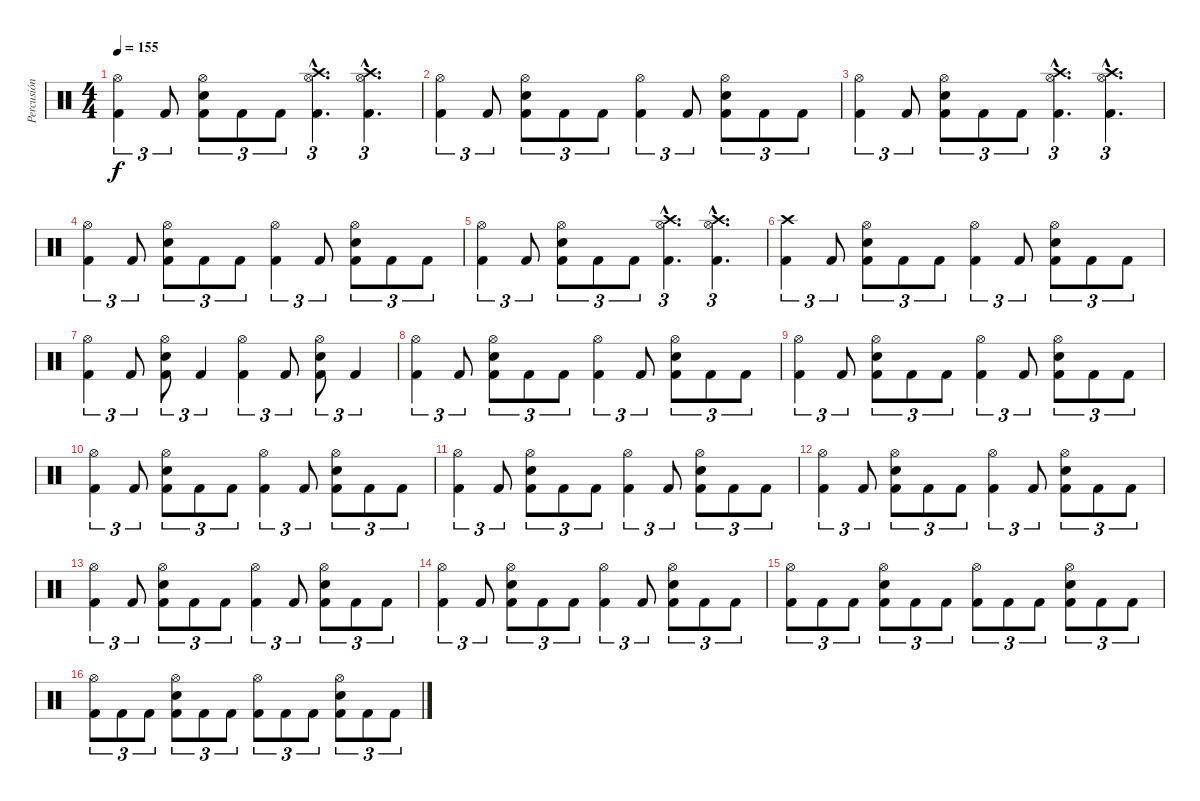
\track ("Percusión" "Percusión") {instrument percussion}
\staff {score}
\articulation defaults
\ts (4 4)
\tempo 155
\clef neutral
\ks c
("Hi-Hat (open)" "Kick (hit) 2").4{tu (3 2) dy f} "Kick (hit) 2".8{tu (3 2)} ("Hi-Hat (open)" "Electric Snare (hit)" "Kick (hit) 2").8{tu (3 2)} "Kick (hit) 2".8{tu (3 2)} "Kick (hit) 2".8{tu (3 2)} ("Hi-Hat (open)"{hac} "Crash high (hit)"{hac} "Kick (hit) 2"{hac}).4{d tu (3 2)} ("Hi-Hat (open)"{hac} "Crash high (hit)"{hac} "Kick (hit) 2"{hac}).4{d tu (3 2)} |
("Hi-Hat (open)" "Kick (hit) 2").4{tu (3 2)} "Kick (hit) 2".8{tu (3 2)} ("Hi-Hat (open)" "Electric Snare (hit)" "Kick (hit) 2").8{tu (3 2)} "Kick (hit) 2".8{tu (3 2)} "Kick (hit) 2".8{tu (3 2)} ("Hi-Hat (open)" "Kick (hit) 2").4{tu (3 2)} "Kick (hit) 2".8{tu (3 2)} ("Hi-Hat (open)" "Electric Snare (hit)" "Kick (hit) 2").8{tu (3 2)} "Kick (hit) 2".8{tu (3 2)} "Kick (hit) 2".8{tu (3 2)} |
("Hi-Hat (open)" "Kick (hit) 2").4{tu (3 2)} "Kick (hit) 2".8{tu (3 2)} ("Hi-Hat (open)" "Electric Snare (hit)" "Kick (hit) 2").8{tu (3 2)} "Kick (hit) 2".8{tu (3 2)} "Kick (hit) 2".8{tu (3 2)} ("Hi-Hat (open)"{hac} "Crash high (hit)"{hac} "Kick (hit) 2"{hac}).4{d tu (3 2)} ("Hi-Hat (open)"{hac} "Crash high (hit)"{hac} "Kick (hit) 2"{hac}).4{d tu (3 2)} |
("Hi-Hat (open)" "Kick (hit) 2").4{tu (3 2)} "Kick (hit) 2".8{tu (3 2)} ("Hi-Hat (open)" "Electric Snare (hit)" "Kick (hit) 2").8{tu (3 2)} "Kick (hit) 2".8{tu (3 2)} "Kick (hit) 2".8{tu (3 2)} ("Hi-Hat (open)" "Kick (hit) 2").4{tu (3 2)} "Kick (hit) 2".8{tu (3 2)} ("Hi-Hat (open)" "Electric Snare (hit)" "Kick (hit) 2").8{tu (3 2)} "Kick (hit) 2".8{tu (3 2)} "Kick (hit) 2".8{tu (3 2)} |
("Hi-Hat (open)" "Kick (hit) 2").4{tu (3 2)} "Kick (hit) 2".8{tu (3 2)} ("Hi-Hat (open)" "Electric Snare (hit)" "Kick (hit) 2").8{tu (3 2)} "Kick (hit) 2".8{tu (3 2)} "Kick (hit) 2".8{tu (3 2)} ("Hi-Hat (open)"{hac} "Crash high (hit)"{hac} "Kick (hit) 2"{hac}).4{d tu (3 2)} ("Hi-Hat (open)"{hac} "Crash high (hit)"{hac} "Kick (hit) 2"{hac}).4{d tu (3 2)} |
("Crash high (hit)" "Kick (hit) 2").4{tu (3 2)} "Kick (hit) 2".8{tu (3 2)} ("Hi-Hat (open)" "Electric Snare (hit)" "Kick (hit) 2").8{tu (3 2)} "Kick (hit) 2".8{tu (3 2)} "Kick (hit) 2".8{tu (3 2)} ("Hi-Hat (open)" "Kick (hit) 2").4{tu (3 2)} "Kick (hit) 2".8{tu (3 2)} ("Hi-Hat (open)" "Electric Snare (hit)" "Kick (hit) 2").8{tu (3 2)} "Kick (hit) 2".8{tu (3 2)} "Kick (hit) 2".8{tu (3 2)} |
("Hi-Hat (open)" "Kick (hit) 2").4{tu (3 2)} "Kick (hit) 2".8{tu (3 2)} ("Hi-Hat (open)" "Electric Snare (hit)" "Kick (hit) 2").8{tu (3 2)} "Kick (hit) 2".4{tu (3 2)} ("Hi-Hat (open)" "Kick (hit) 2").4{tu (3 2)} "Kick (hit) 2".8{tu (3 2)} ("Hi-Hat (open)" "Electric Snare (hit)" "Kick (hit) 2").8{tu (3 2)} "Kick (hit) 2".4{tu (3 2)} |
("Hi-Hat (open)" "Kick (hit) 2").4{tu (3 2)} "Kick (hit) 2".8{tu (3 2)} ("Hi-Hat (open)" "Electric Snare (hit)" "Kick (hit) 2").8{tu (3 2)} "Kick (hit) 2".8{tu (3 2)} "Kick (hit) 2".8{tu (3 2)} ("Hi-Hat (open)" "Kick (hit) 2").4{tu (3 2)} "Kick (hit) 2".8{tu (3 2)} ("Hi-Hat (open)" "Electric Snare (hit)" "Kick (hit) 2").8{tu (3 2)} "Kick (hit) 2".8{tu (3 2)} "Kick (hit) 2".8{tu (3 2)} |
("Hi-Hat (open)" "Kick (hit) 2").4{tu (3 2)} "Kick (hit) 2".8{tu (3 2)} ("Hi-Hat (open)" "Electric Snare (hit)" "Kick (hit) 2").8{tu (3 2)} "Kick (hit) 2".8{tu (3 2)} "Kick (hit) 2".8{tu (3 2)} ("Hi-Hat (open)" "Kick (hit) 2").4{tu (3 2)} "Kick (hit) 2".8{tu (3 2)} ("Hi-Hat (open)" "Electric Snare (hit)" "Kick (hit) 2").8{tu (3 2)} "Kick (hit) 2".8{tu (3 2)} "Kick (hit) 2".8{tu (3 2)} |
("Hi-Hat (open)" "Kick (hit) 2").4{tu (3 2)} "Kick (hit) 2".8{tu (3 2)} ("Hi-Hat (open)" "Electric Snare (hit)" "Kick (hit) 2").8{tu (3 2)} "Kick (hit) 2".8{tu (3 2)} "Kick (hit) 2".8{tu (3 2)} ("Hi-Hat (open)" "Kick (hit) 2").4{tu (3 2)} "Kick (hit) 2".8{tu (3 2)} ("Hi-Hat (open)" "Electric Snare (hit)" "Kick (hit) 2").8{tu (3 2)} "Kick (hit) 2".8{tu (3 2)} "Kick (hit) 2".8{tu (3 2)} |
("Hi-Hat (open)" "Kick (hit) 2").4{tu (3 2)} "Kick (hit) 2".8{tu (3 2)} ("Hi-Hat (open)" "Electric Snare (hit)" "Kick (hit) 2").8{tu (3 2)} "Kick (hit) 2".8{tu (3 2)} "Kick (hit) 2".8{tu (3 2)} ("Hi-Hat (open)" "Kick (hit) 2").4{tu (3 2)} "Kick (hit) 2".8{tu (3 2)} ("Hi-Hat (open)" "Electric Snare (hit)" "Kick (hit) 2").8{tu (3 2)} "Kick (hit) 2".8{tu (3 2)} "Kick (hit) 2".8{tu (3 2)} |
("Hi-Hat (open)" "Kick (hit) 2").4{tu (3 2)} "Kick (hit) 2".8{tu (3 2)} ("Hi-Hat (open)" "Electric Snare (hit)" "Kick (hit) 2").8{tu (3 2)} "Kick (hit) 2".8{tu (3 2)} "Kick (hit) 2".8{tu (3 2)} ("Hi-Hat (open)" "Kick (hit) 2").4{tu (3 2)} "Kick (hit) 2".8{tu (3 2)} ("Hi-Hat (open)" "Electric Snare (hit)" "Kick (hit) 2").8{tu (3 2)} "Kick (hit) 2".8{tu (3 2)} "Kick (hit) 2".8{tu (3 2)} |
("Hi-Hat (open)" "Kick (hit) 2").4{tu (3 2)} "Kick (hit) 2".8{tu (3 2)} ("Hi-Hat (open)" "Electric Snare (hit)" "Kick (hit) 2").8{tu (3 2)} "Kick (hit) 2".8{tu (3 2)} "Kick (hit) 2".8{tu (3 2)} ("Hi-Hat (open)" "Kick (hit) 2").4{tu (3 2)} "Kick (hit) 2".8{tu (3 2)} ("Hi-Hat (open)" "Electric Snare (hit)" "Kick (hit) 2").8{tu (3 2)} "Kick (hit) 2".8{tu (3 2)} "Kick (hit) 2".8{tu (3 2)} |
("Hi-Hat (open)" "Kick (hit) 2").4{tu (3 2)} "Kick (hit) 2".8{tu (3 2)} ("Hi-Hat (open)" "Electric Snare (hit)" "Kick (hit) 2").8{tu (3 2)} "Kick (hit) 2".8{tu (3 2)} "Kick (hit) 2".8{tu (3 2)} ("Hi-Hat (open)" "Kick (hit) 2").4{tu (3 2)} "Kick (hit) 2".8{tu (3 2)} ("Hi-Hat (open)" "Electric Snare (hit)" "Kick (hit) 2").8{tu (3 2)} "Kick (hit) 2".8{tu (3 2)} "Kick (hit) 2".8{tu (3 2)} |
("Hi-Hat (open)" "Kick (hit) 2").8{tu (3 2)} "Kick (hit) 2".8{tu (3 2)} "Kick (hit) 2".8{tu (3 2)} ("Hi-Hat (open)" "Electric Snare (hit)" "Kick (hit) 2").8{tu (3 2)} "Kick (hit) 2".8{tu (3 2)} "Kick (hit) 2".8{tu (3 2)} ("Hi-Hat (open)" "Kick (hit) 2").8{tu (3 2)} "Kick (hit) 2".8{tu (3 2)} "Kick (hit) 2".8{tu (3 2)} ("Hi-Hat (open)" "Electric Snare (hit)" "Kick (hit) 2").8{tu (3 2)} "Kick (hit) 2".8{tu (3 2)} "Kick (hit) 2".8{tu (3 2)} |
("Hi-Hat (open)" "Kick (hit) 2").8{tu (3 2)} "Kick (hit) 2".8{tu (3 2)} "Kick (hit) 2".8{tu (3 2)} ("Hi-Hat (open)" "Electric Snare (hit)" "Kick (hit) 2").8{tu (3 2)} "Kick (hit) 2".8{tu (3 2)} "Kick (hit) 2".8{tu (3 2)} ("Hi-Hat (open)" "Kick (hit) 2").8{tu (3 2)} "Kick (hit) 2".8{tu (3 2)} "Kick (hit) 2".8{tu (3 2)} ("Hi-Hat (open)" "Electric Snare (hit)" "Kick (hit) 2").8{tu (3 2)} "Kick (hit) 2".8{tu (3 2)} "Kick (hit) 2".8{tu (3 2)}
